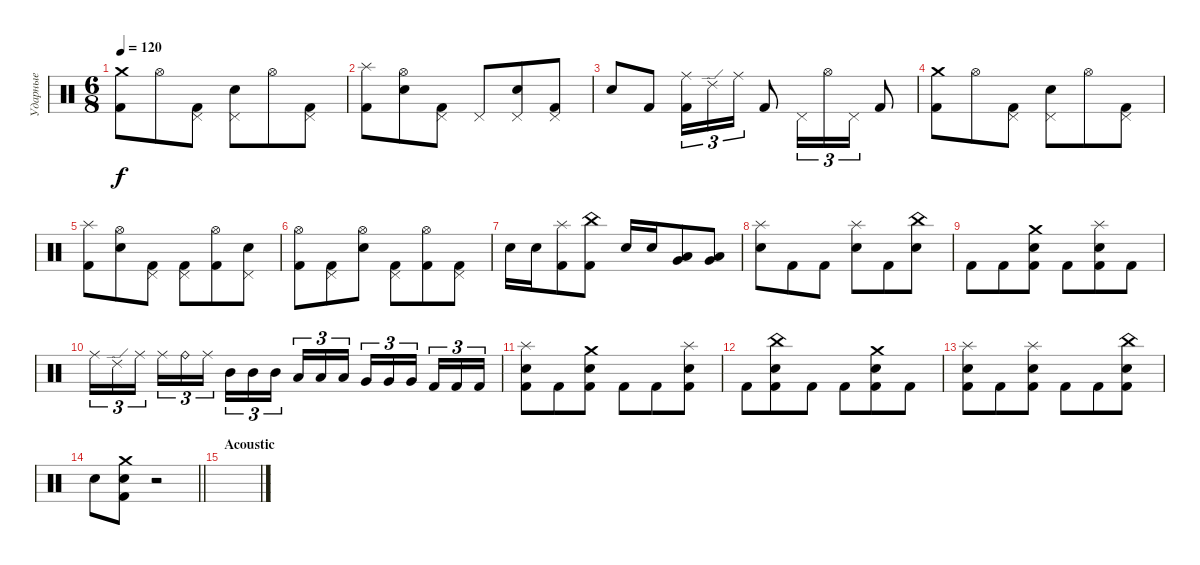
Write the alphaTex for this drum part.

\track ("Ударные" "Ударные") {instrument percussion}
\staff {score}
\articulation defaults
\ts (6 8)
\tempo 120
\clef neutral
\ks c
("Crash medium (hit)" "Kick (hit) 2").8{dy f} "Hi-Hat (open)".8 ("Pedal Hi-Hat (hit)" "Kick (hit) 2").8 ("Pedal Hi-Hat (hit)" "Snare (hit) 2").8 "Hi-Hat (open)".8 ("Pedal Hi-Hat (hit)" "Kick (hit) 2").8 |
("Splash (hit)" "Kick (hit) 2").8 ("Hi-Hat (open)" "Snare (hit) 2").8 ("Pedal Hi-Hat (hit)" "Kick (hit) 2").8 "Pedal Hi-Hat (hit)".8 ("Pedal Hi-Hat (hit)" "Snare (hit) 2").8 ("Pedal Hi-Hat (hit)" "Kick (hit) 2").8 |
"Snare (hit) 2".8 "Kick (hit) 2".8 ("Ride (middle)" "Kick (hit) 2").16{tu (3 2)} "Ride (edge) 2".16{tu (3 2)} "Ride (middle)".16{tu (3 2)} "Kick (hit) 2".8 "Pedal Hi-Hat (hit)".16{tu (3 2)} "Hi-Hat (open)".16{tu (3 2)} "Pedal Hi-Hat (hit)".16{tu (3 2)} "Kick (hit) 2".8 |
("Crash medium (hit)" "Kick (hit) 2").8 "Hi-Hat (open)".8 ("Pedal Hi-Hat (hit)" "Kick (hit) 2").8 ("Pedal Hi-Hat (hit)" "Snare (hit) 2").8 "Hi-Hat (open)".8 ("Pedal Hi-Hat (hit)" "Kick (hit) 2").8 |
("Splash (hit)" "Kick (hit) 2").8 ("Hi-Hat (open)" "Snare (hit) 2").8 ("Pedal Hi-Hat (hit)" "Kick (hit) 2").8 ("Pedal Hi-Hat (hit)" "Kick (hit) 2").8 ("Hi-Hat (open)" "Kick (hit) 2").8 ("Pedal Hi-Hat (hit)" "Snare (hit) 2").8 |
("Hi-Hat (open)" "Kick (hit) 2").8 ("Pedal Hi-Hat (hit)" "Kick (hit) 2").8 ("Hi-Hat (open)" "Snare (hit) 2").8 ("Pedal Hi-Hat (hit)" "Kick (hit) 2").8 ("Hi-Hat (open)" "Kick (hit) 2").8 ("Pedal Hi-Hat (hit)" "Kick (hit) 2").8 |
"Snare (hit) 2".16 "Snare (hit) 2".16 ("Splash (hit)" "Kick (hit) 2").8 ("China (hit)" "Kick (hit) 2").8 "Snare (hit) 2".16 "Snare (hit) 2".16 ("Very Low Tom (hit)" "Low Floor Tom (hit)").8 ("Very Low Tom (hit)" "Low Floor Tom (hit)").8 |
("Splash (hit)" "Snare (hit) 2").8 "Kick (hit) 2".8 "Kick (hit) 2".8 ("Splash (hit)" "Snare (hit) 2").8 "Kick (hit) 2".8 ("China (hit)" "Snare (hit) 2").8 |
"Kick (hit) 2".8 "Kick (hit) 2".8 ("Crash medium (hit)" "Snare (hit) 2" "Kick (hit) 2").8 "Kick (hit) 2".8 ("Splash (hit)" "Snare (hit) 2" "Kick (hit) 2").8 "Kick (hit) 2".8 |
"Ride (middle)".16{tu (3 2)} "Ride (edge) 2".16{tu (3 2)} "Ride (middle)".16{tu (3 2)} "Ride (middle)".16{tu (3 2)} "Ride (bell)".16{tu (3 2)} "Ride (middle)".16{tu (3 2)} "Mid Tom (hit)".16{tu (3 2)} "Mid Tom (hit)".16{tu (3 2)} "Mid Tom (hit)".16{tu (3 2)} "Low Tom (hit)".16{tu (3 2)} "Low Tom (hit)".16{tu (3 2)} "Low Tom (hit)".16{tu (3 2)} "Very Low Tom (hit)".16{tu (3 2)} "Very Low Tom (hit)".16{tu (3 2)} "Very Low Tom (hit)".16{tu (3 2)} "Kick (hit) 2".16{tu (3 2)} "Kick (hit) 2".16{tu (3 2)} "Kick (hit) 2".16{tu (3 2)} |
("Splash (hit)" "Snare (hit) 2" "Kick (hit) 2").8 "Kick (hit) 2".8 ("Crash medium (hit)" "Snare (hit) 2" "Kick (hit) 2").8 "Kick (hit) 2".8 "Kick (hit) 2".8 ("Splash (hit)" "Snare (hit) 2" "Kick (hit) 2").8 |
"Kick (hit) 2".8 ("China (hit)" "Snare (hit) 2" "Kick (hit) 2").8 "Kick (hit) 2".8 "Kick (hit) 2".8 ("Crash medium (hit)" "Snare (hit) 2" "Kick (hit) 2").8 "Kick (hit) 2".8 |
("Splash (hit)" "Snare (hit) 2" "Kick (hit) 2").8 "Kick (hit) 2".8 ("Splash (hit)" "Snare (hit) 2" "Kick (hit) 2").8 "Kick (hit) 2".8 "Kick (hit) 2".8 ("China (hit)" "Snare (hit) 2" "Kick (hit) 2").8 |
\barLineRight lightlight "Snare (hit) 2".8
("Crash medium (hit)" "Snare (hit) 2" "Kick (hit) 2").8 r.2 |
\section ("" "Acoustic")
